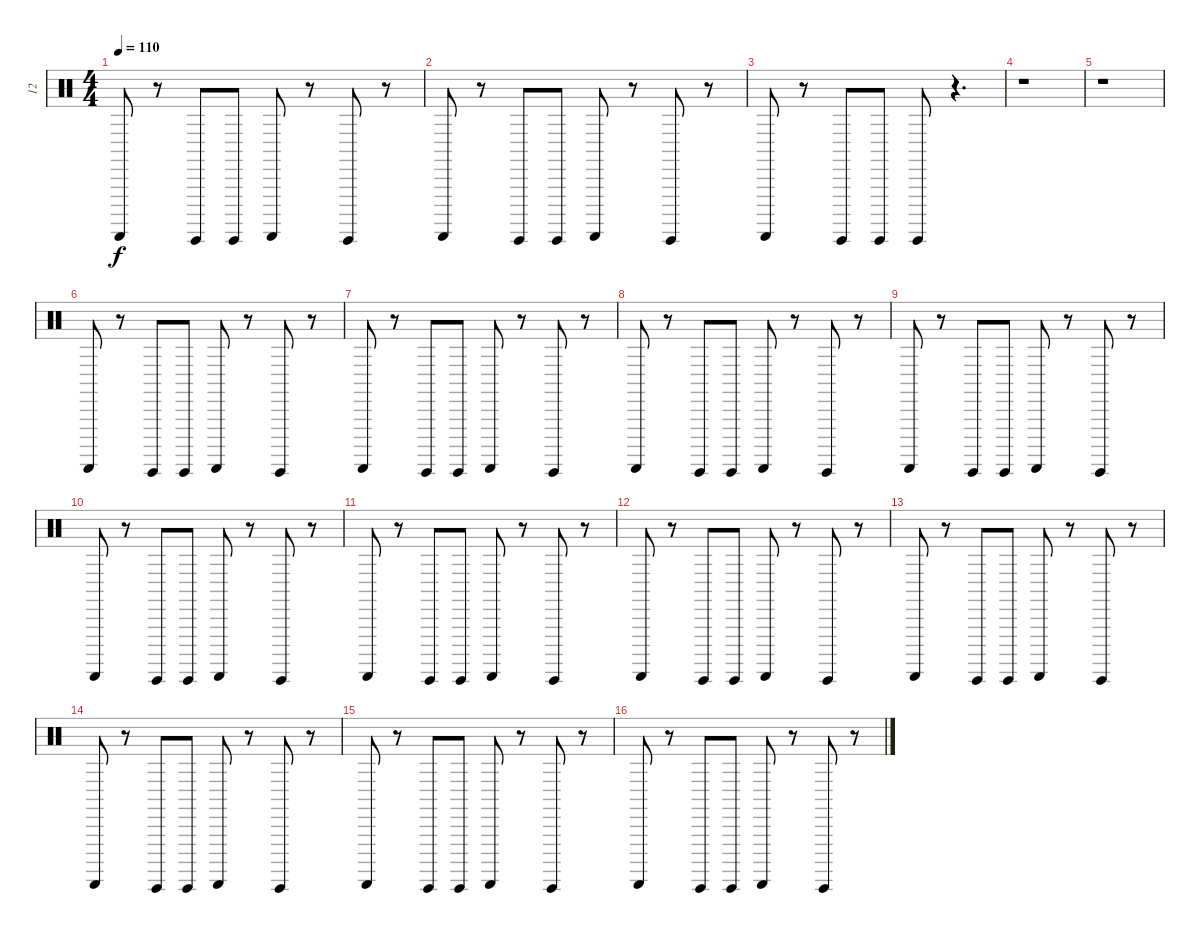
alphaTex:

\track ("12" "12") {instrument percussion}
\staff {score}
\articulation defaults
\ts (4 4)
\tempo 110
\clef neutral
\ks c "Guiro (scrap-return)".8{dy f}
r.8 "Guiro (hit)".8 "Guiro (hit)".8 "Guiro (scrap-return)".8 r.8 "Guiro (hit)".8 r.8 |
"Guiro (scrap-return)".8 r.8 "Guiro (hit)".8 "Guiro (hit)".8 "Guiro (scrap-return)".8 r.8 "Guiro (hit)".8 r.8 |
"Guiro (scrap-return)".8 r.8 "Guiro (hit)".8 "Guiro (hit)".8 "Guiro (hit)".8 r.4{d} |
r.1 |
r.1 |
"Guiro (scrap-return)".8 r.8 "Guiro (hit)".8 "Guiro (hit)".8 "Guiro (scrap-return)".8 r.8 "Guiro (hit)".8 r.8 |
"Guiro (scrap-return)".8 r.8 "Guiro (hit)".8 "Guiro (hit)".8 "Guiro (scrap-return)".8 r.8 "Guiro (hit)".8 r.8 |
"Guiro (scrap-return)".8 r.8 "Guiro (hit)".8 "Guiro (hit)".8 "Guiro (scrap-return)".8 r.8 "Guiro (hit)".8 r.8 |
"Guiro (scrap-return)".8 r.8 "Guiro (hit)".8 "Guiro (hit)".8 "Guiro (scrap-return)".8 r.8 "Guiro (hit)".8 r.8 |
"Guiro (scrap-return)".8 r.8 "Guiro (hit)".8 "Guiro (hit)".8 "Guiro (scrap-return)".8 r.8 "Guiro (hit)".8 r.8 |
"Guiro (scrap-return)".8 r.8 "Guiro (hit)".8 "Guiro (hit)".8 "Guiro (scrap-return)".8 r.8 "Guiro (hit)".8 r.8 |
"Guiro (scrap-return)".8 r.8 "Guiro (hit)".8 "Guiro (hit)".8 "Guiro (scrap-return)".8 r.8 "Guiro (hit)".8 r.8 |
"Guiro (scrap-return)".8 r.8 "Guiro (hit)".8 "Guiro (hit)".8 "Guiro (scrap-return)".8 r.8 "Guiro (hit)".8 r.8 |
"Guiro (scrap-return)".8 r.8 "Guiro (hit)".8 "Guiro (hit)".8 "Guiro (scrap-return)".8 r.8 "Guiro (hit)".8 r.8 |
"Guiro (scrap-return)".8 r.8 "Guiro (hit)".8 "Guiro (hit)".8 "Guiro (scrap-return)".8 r.8 "Guiro (hit)".8 r.8 |
"Guiro (scrap-return)".8 r.8 "Guiro (hit)".8 "Guiro (hit)".8 "Guiro (scrap-return)".8 r.8 "Guiro (hit)".8 r.8
